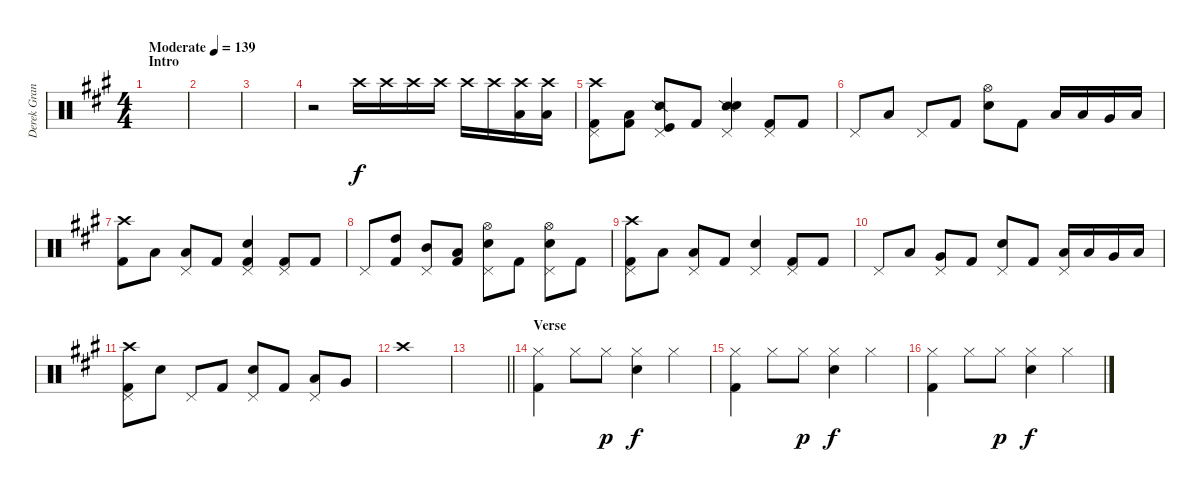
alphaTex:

\track ("Derek Grant - Drums" "Derek Gran") {instrument percussion}
\staff {score}
\articulation defaults
\ts (4 4)
\section ("" "Intro")
\tempo (139 "Moderate")
\clef neutral
\ks a
|
|
|
r.2 "Crash high (hit)".16{volume 11} "Crash high (hit)".16 "Crash high (hit)".16 "Crash high (hit)".16 "Crash high (hit)".16 "Crash high (hit)".16 ("Low Tom (hit)" "Crash high (hit)").16 ("Low Floor Tom (hit)" "Crash high (hit)").16 |
("Kick (hit) 2" "Crash high (hit)" "Pedal Hi-Hat (hit)").8 ("Kick (hit) 2" "Low Tom (hit)").8 ("Snare (side stick) 2" "Kick (hit)" "Pedal Hi-Hat (hit)").8 "Kick (hit) 2".8 ("Snare (side stick) 2" "Snare (hit) 2" "Pedal Hi-Hat (hit)").4 ("Pedal Hi-Hat (hit)" "Kick (hit) 2").8 "Kick (hit) 2".8 |
"Pedal Hi-Hat (hit)".8 "Low Tom (hit)".8 "Pedal Hi-Hat (hit)".8 "Kick (hit) 2".8 ("Snare (hit) 2" "Hi-Hat (open)").8 "Kick (hit) 2".8 "Low Tom (hit)".16 "Low Tom (hit)".16 "Very Low Tom (hit)".16 "Low Floor Tom (hit)".16 |
("Kick (hit) 2" "Crash high (hit)").8 "Low Tom (hit)".8 ("Pedal Hi-Hat (hit)" "Low Tom (hit)").8 "Kick (hit) 2".8 ("Snare (hit) 2" "Kick (hit) 2" "Pedal Hi-Hat (hit)").4 ("Pedal Hi-Hat (hit)" "Kick (hit) 2").8 "Kick (hit) 2".8 |
"Pedal Hi-Hat (hit)".8 ("Kick (hit) 2" "High Tom (hit)").8 ("Pedal Hi-Hat (hit)" "Mid Tom (hit)").8 ("Low Tom (hit)" "Kick (hit) 2").8 ("Hi-Hat (open)" "Snare (hit) 2" "Pedal Hi-Hat (hit)").8 "Kick (hit) 2".8 ("Hi-Hat (open)" "Snare (hit) 2" "Pedal Hi-Hat (hit)").8 "Kick (hit) 2".8 |
("Kick (hit) 2" "Crash high (hit)" "Pedal Hi-Hat (hit)").8 "Low Tom (hit)".8 ("Pedal Hi-Hat (hit)" "Low Tom (hit)").8 "Kick (hit) 2".8 ("Snare (hit) 2" "Pedal Hi-Hat (hit)").4 ("Kick (hit) 2" "Pedal Hi-Hat (hit)").8 "Kick (hit) 2".8 |
"Pedal Hi-Hat (hit)".8 "Low Tom (hit)".8 ("Very Low Tom (hit)" "Pedal Hi-Hat (hit)").8 "Kick (hit) 2".8 ("Snare (hit) 2" "Pedal Hi-Hat (hit)").8 "Kick (hit) 2".8 ("Low Tom (hit)" "Pedal Hi-Hat (hit)").16 "Low Tom (hit)".16 "Very Low Tom (hit)".16 "Low Floor Tom (hit)".16 |
("Crash high (hit)" "Kick (hit) 2" "Pedal Hi-Hat (hit)").8 "Snare (hit) 2".8 "Pedal Hi-Hat (hit)".8 "Kick (hit) 2".8 ("Snare (hit) 2" "Pedal Hi-Hat (hit)").8 "Kick (hit) 2".8 ("Low Tom (hit)" "Pedal Hi-Hat (hit)").8 "Very Low Tom (hit)".8 |
"Crash high (hit)".1 |
\barLineRight lightlight
|
\section ("" "Verse")
("Kick (hit) 2" "Hi-Hat (closed)").4{dy f} "Hi-Hat (closed)".8 "Hi-Hat (closed)".8{dy p} ("Hi-Hat (closed)" "Snare (hit) 2").4{dy f} "Hi-Hat (closed)".4 |
("Kick (hit) 2" "Hi-Hat (closed)").4 "Hi-Hat (closed)".8 "Hi-Hat (closed)".8{dy p} ("Hi-Hat (closed)" "Snare (hit) 2").4{dy f} "Hi-Hat (closed)".4 |
("Kick (hit) 2" "Hi-Hat (closed)").4 "Hi-Hat (closed)".8 "Hi-Hat (closed)".8{dy p} ("Hi-Hat (closed)" "Snare (hit) 2").4{dy f} "Hi-Hat (closed)".4
